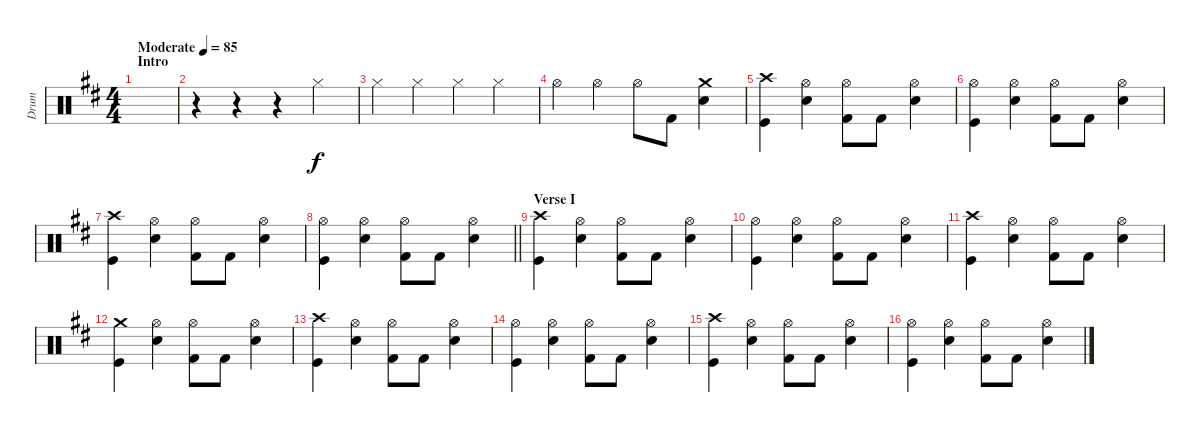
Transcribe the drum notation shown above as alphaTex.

\track ("Drum" "Drum") {instrument percussion}
\staff {score}
\articulation defaults
\ts (4 4)
\section ("" "Intro")
\tempo (85 "Moderate")
\clef neutral
\ks d
|
r.4 r.4 r.4 "Hi-Hat (closed)".4 |
"Hi-Hat (closed)".4 "Hi-Hat (closed)".4 "Hi-Hat (closed)".4 "Hi-Hat (closed)".4 |
"Hi-Hat (open)".4 "Hi-Hat (open)".4 "Hi-Hat (open)".8 "Kick (hit) 2".8 ("Crash medium (hit)" "Electric Snare (hit)").4 |
("Kick (hit)" "Crash high (hit)").4 ("Electric Snare (hit)" "Hi-Hat (open)").4 ("Kick (hit) 2" "Hi-Hat (open)").8 "Kick (hit) 2".8 ("Snare (hit) 2" "Hi-Hat (open)").4 |
("Kick (hit)" "Hi-Hat (open)").4 ("Electric Snare (hit)" "Hi-Hat (open)").4 ("Kick (hit) 2" "Hi-Hat (open)").8 "Kick (hit) 2".8 ("Snare (hit) 2" "Hi-Hat (open)").4 |
("Kick (hit)" "Crash high (hit)").4 ("Electric Snare (hit)" "Hi-Hat (open)").4 ("Kick (hit) 2" "Hi-Hat (open)").8 "Kick (hit) 2".8 ("Snare (hit) 2" "Hi-Hat (open)").4 |
\barLineRight lightlight
("Kick (hit)" "Hi-Hat (open)").4 ("Electric Snare (hit)" "Hi-Hat (open)").4 ("Kick (hit) 2" "Hi-Hat (open)").8 "Kick (hit) 2".8 ("Snare (hit) 2" "Hi-Hat (open)").4 |
\section ("" "Verse I")
("Kick (hit)" "Crash high (hit)").4 ("Electric Snare (hit)" "Hi-Hat (open)").4 ("Kick (hit) 2" "Hi-Hat (open)").8 "Kick (hit) 2".8 ("Snare (hit) 2" "Hi-Hat (open)").4 |
("Kick (hit)" "Hi-Hat (open)").4 ("Electric Snare (hit)" "Hi-Hat (open)").4 ("Kick (hit) 2" "Hi-Hat (open)").8 "Kick (hit) 2".8 ("Snare (hit) 2" "Hi-Hat (open)").4 |
("Kick (hit)" "Crash high (hit)").4 ("Electric Snare (hit)" "Hi-Hat (open)").4 ("Kick (hit) 2" "Hi-Hat (open)").8 "Kick (hit) 2".8 ("Snare (hit) 2" "Hi-Hat (open)").4 |
("Kick (hit)" "Crash medium (hit)").4 ("Electric Snare (hit)" "Hi-Hat (open)").4 ("Kick (hit) 2" "Hi-Hat (open)").8 "Kick (hit) 2".8 ("Snare (hit) 2" "Hi-Hat (open)").4 |
("Kick (hit)" "Crash high (hit)").4 ("Electric Snare (hit)" "Hi-Hat (open)").4 ("Kick (hit) 2" "Hi-Hat (open)").8 "Kick (hit) 2".8 ("Snare (hit) 2" "Hi-Hat (open)").4 |
("Kick (hit)" "Hi-Hat (open)").4 ("Electric Snare (hit)" "Hi-Hat (open)").4 ("Kick (hit) 2" "Hi-Hat (open)").8 "Kick (hit) 2".8 ("Snare (hit) 2" "Hi-Hat (open)").4 |
("Kick (hit)" "Crash high (hit)").4 ("Electric Snare (hit)" "Hi-Hat (open)").4 ("Kick (hit) 2" "Hi-Hat (open)").8 "Kick (hit) 2".8 ("Snare (hit) 2" "Hi-Hat (open)").4 |
("Kick (hit)" "Hi-Hat (open)").4 ("Electric Snare (hit)" "Hi-Hat (open)").4 ("Kick (hit) 2" "Hi-Hat (open)").8 "Kick (hit) 2".8 ("Snare (hit) 2" "Hi-Hat (open)").4
